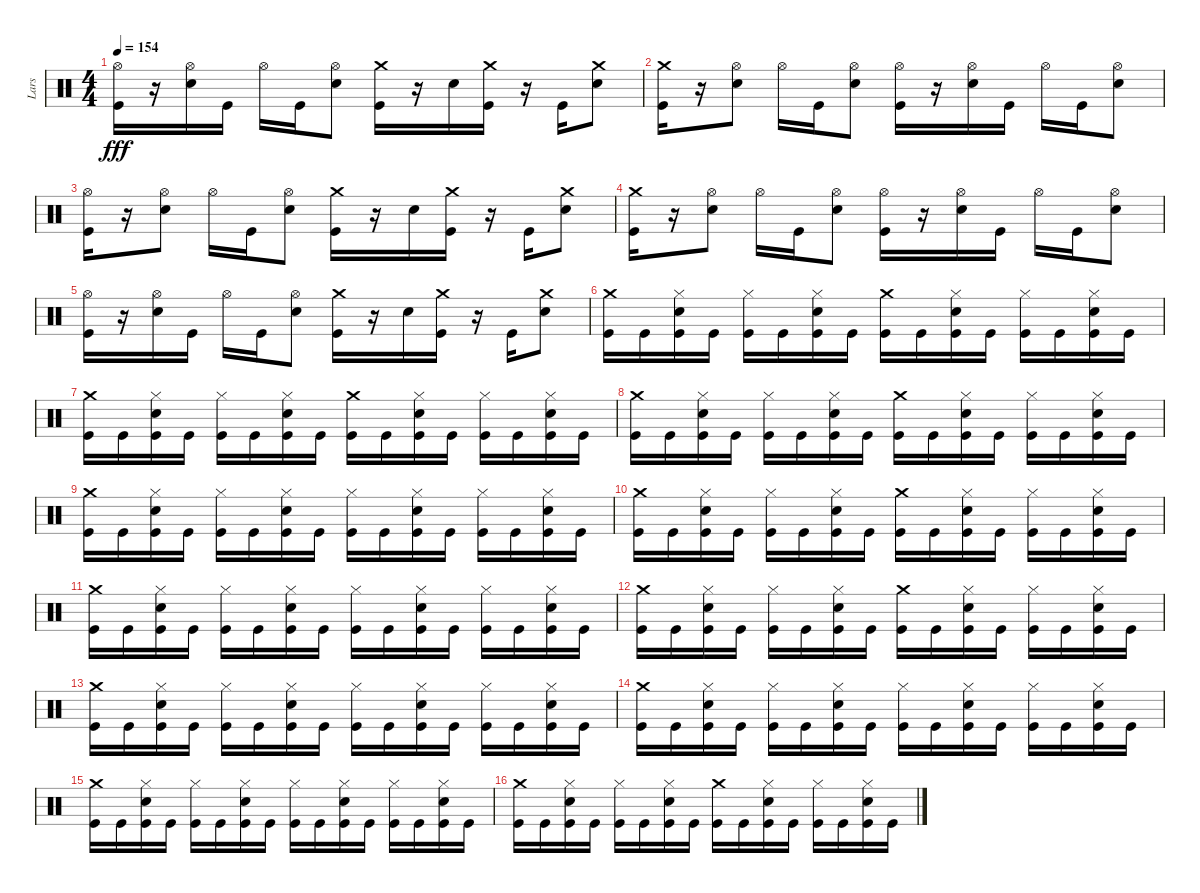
\track ("Lars" "Lars") {instrument percussion bank 102}
\staff {score}
\articulation defaults
\ts (4 4)
\tempo 154
\clef neutral
\ks c
("Hi-Hat (open)" "Kick (hit)").16{dy fff} r.16 ("Snare (hit) 2" "Hi-Hat (open)").16 "Kick (hit)".16 "Hi-Hat (open)".16 "Kick (hit)".16 ("Snare (hit) 2" "Hi-Hat (open)").8 ("Crash medium (hit)" "Kick (hit)").16 r.16 "Snare (hit) 2".16 ("Crash medium (hit)" "Kick (hit)").16 r.16 "Kick (hit)".16 ("Crash medium (hit)" "Snare (hit) 2").8 |
("Kick (hit)" "Crash medium (hit)").16 r.16 ("Snare (hit) 2" "Hi-Hat (open)").8 "Hi-Hat (open)".16 "Kick (hit)".16 ("Snare (hit) 2" "Hi-Hat (open)").8 ("Kick (hit)" "Hi-Hat (open)").16 r.16 ("Snare (hit) 2" "Hi-Hat (open)").16 "Kick (hit)".16 "Hi-Hat (open)".16 "Kick (hit)".16 ("Snare (hit) 2" "Hi-Hat (open)").8 |
("Hi-Hat (open)" "Kick (hit)").16 r.16 ("Snare (hit) 2" "Hi-Hat (open)").8 "Hi-Hat (open)".16 "Kick (hit)".16 ("Snare (hit) 2" "Hi-Hat (open)").8 ("Crash medium (hit)" "Kick (hit)").16 r.16 "Snare (hit) 2".16 ("Crash medium (hit)" "Kick (hit)").16 r.16 "Kick (hit)".16 ("Crash medium (hit)" "Snare (hit) 2").8 |
("Kick (hit)" "Crash medium (hit)").16 r.16 ("Snare (hit) 2" "Hi-Hat (open)").8 "Hi-Hat (open)".16 "Kick (hit)".16 ("Snare (hit) 2" "Hi-Hat (open)").8 ("Kick (hit)" "Hi-Hat (open)").16 r.16 ("Snare (hit) 2" "Hi-Hat (open)").16 "Kick (hit)".16 "Hi-Hat (open)".16 "Kick (hit)".16 ("Snare (hit) 2" "Hi-Hat (open)").8 |
("Hi-Hat (open)" "Kick (hit)").16 r.16 ("Snare (hit) 2" "Hi-Hat (open)").16 "Kick (hit)".16 "Hi-Hat (open)".16 "Kick (hit)".16 ("Snare (hit) 2" "Hi-Hat (open)").8 ("Crash medium (hit)" "Kick (hit)").16 r.16 "Snare (hit) 2".16 ("Crash medium (hit)" "Kick (hit)").16 r.16 "Kick (hit)".16 ("Crash medium (hit)" "Snare (hit) 2").8 |
("Crash medium (hit)" "Kick (hit)").16 "Kick (hit)".16 ("Snare (hit) 2" "Hi-Hat (closed)" "Kick (hit)").16 "Kick (hit)".16 ("Hi-Hat (closed)" "Kick (hit)").16 "Kick (hit)".16 ("Snare (hit) 2" "Hi-Hat (closed)" "Kick (hit)").16 "Kick (hit)".16 ("Crash medium (hit)" "Kick (hit)").16 "Kick (hit)".16 ("Snare (hit) 2" "Hi-Hat (closed)" "Kick (hit)").16 "Kick (hit)".16 ("Hi-Hat (closed)" "Kick (hit)").16 "Kick (hit)".16 ("Snare (hit) 2" "Hi-Hat (closed)" "Kick (hit)").16 "Kick (hit)".16 |
("Crash medium (hit)" "Kick (hit)").16 "Kick (hit)".16 ("Snare (hit) 2" "Hi-Hat (closed)" "Kick (hit)").16 "Kick (hit)".16 ("Hi-Hat (closed)" "Kick (hit)").16 "Kick (hit)".16 ("Snare (hit) 2" "Hi-Hat (closed)" "Kick (hit)").16 "Kick (hit)".16 ("Crash medium (hit)" "Kick (hit)").16 "Kick (hit)".16 ("Snare (hit) 2" "Hi-Hat (closed)" "Kick (hit)").16 "Kick (hit)".16 ("Hi-Hat (closed)" "Kick (hit)").16 "Kick (hit)".16 ("Snare (hit) 2" "Hi-Hat (closed)" "Kick (hit)").16 "Kick (hit)".16 |
("Crash medium (hit)" "Kick (hit)").16 "Kick (hit)".16 ("Snare (hit) 2" "Hi-Hat (closed)" "Kick (hit)").16 "Kick (hit)".16 ("Hi-Hat (closed)" "Kick (hit)").16 "Kick (hit)".16 ("Snare (hit) 2" "Hi-Hat (closed)" "Kick (hit)").16 "Kick (hit)".16 ("Crash medium (hit)" "Kick (hit)").16 "Kick (hit)".16 ("Snare (hit) 2" "Hi-Hat (closed)" "Kick (hit)").16 "Kick (hit)".16 ("Hi-Hat (closed)" "Kick (hit)").16 "Kick (hit)".16 ("Snare (hit) 2" "Hi-Hat (closed)" "Kick (hit)").16 "Kick (hit)".16 |
("Crash medium (hit)" "Kick (hit)").16 "Kick (hit)".16 ("Snare (hit) 2" "Hi-Hat (closed)" "Kick (hit)").16 "Kick (hit)".16 ("Hi-Hat (closed)" "Kick (hit)").16 "Kick (hit)".16 ("Snare (hit) 2" "Hi-Hat (closed)" "Kick (hit)").16 "Kick (hit)".16 ("Hi-Hat (closed)" "Kick (hit)").16 "Kick (hit)".16 ("Snare (hit) 2" "Hi-Hat (closed)" "Kick (hit)").16 "Kick (hit)".16 ("Hi-Hat (closed)" "Kick (hit)").16 "Kick (hit)".16 ("Snare (hit) 2" "Hi-Hat (closed)" "Kick (hit)").16 "Kick (hit)".16 |
("Crash medium (hit)" "Kick (hit)").16 "Kick (hit)".16 ("Snare (hit) 2" "Hi-Hat (closed)" "Kick (hit)").16 "Kick (hit)".16 ("Hi-Hat (closed)" "Kick (hit)").16 "Kick (hit)".16 ("Snare (hit) 2" "Hi-Hat (closed)" "Kick (hit)").16 "Kick (hit)".16 ("Crash medium (hit)" "Kick (hit)").16 "Kick (hit)".16 ("Snare (hit) 2" "Hi-Hat (closed)" "Kick (hit)").16 "Kick (hit)".16 ("Hi-Hat (closed)" "Kick (hit)").16 "Kick (hit)".16 ("Snare (hit) 2" "Hi-Hat (closed)" "Kick (hit)").16 "Kick (hit)".16 |
("Crash medium (hit)" "Kick (hit)").16 "Kick (hit)".16 ("Snare (hit) 2" "Hi-Hat (closed)" "Kick (hit)").16 "Kick (hit)".16 ("Hi-Hat (closed)" "Kick (hit)").16 "Kick (hit)".16 ("Snare (hit) 2" "Hi-Hat (closed)" "Kick (hit)").16 "Kick (hit)".16 ("Hi-Hat (closed)" "Kick (hit)").16 "Kick (hit)".16 ("Snare (hit) 2" "Hi-Hat (closed)" "Kick (hit)").16 "Kick (hit)".16 ("Hi-Hat (closed)" "Kick (hit)").16 "Kick (hit)".16 ("Snare (hit) 2" "Hi-Hat (closed)" "Kick (hit)").16 "Kick (hit)".16 |
("Crash medium (hit)" "Kick (hit)").16 "Kick (hit)".16 ("Snare (hit) 2" "Hi-Hat (closed)" "Kick (hit)").16 "Kick (hit)".16 ("Hi-Hat (closed)" "Kick (hit)").16 "Kick (hit)".16 ("Snare (hit) 2" "Hi-Hat (closed)" "Kick (hit)").16 "Kick (hit)".16 ("Crash medium (hit)" "Kick (hit)").16 "Kick (hit)".16 ("Snare (hit) 2" "Hi-Hat (closed)" "Kick (hit)").16 "Kick (hit)".16 ("Hi-Hat (closed)" "Kick (hit)").16 "Kick (hit)".16 ("Snare (hit) 2" "Hi-Hat (closed)" "Kick (hit)").16 "Kick (hit)".16 |
("Crash medium (hit)" "Kick (hit)").16 "Kick (hit)".16 ("Snare (hit) 2" "Hi-Hat (closed)" "Kick (hit)").16 "Kick (hit)".16 ("Hi-Hat (closed)" "Kick (hit)").16 "Kick (hit)".16 ("Snare (hit) 2" "Hi-Hat (closed)" "Kick (hit)").16 "Kick (hit)".16 ("Hi-Hat (closed)" "Kick (hit)").16 "Kick (hit)".16 ("Snare (hit) 2" "Hi-Hat (closed)" "Kick (hit)").16 "Kick (hit)".16 ("Hi-Hat (closed)" "Kick (hit)").16 "Kick (hit)".16 ("Snare (hit) 2" "Hi-Hat (closed)" "Kick (hit)").16 "Kick (hit)".16 |
("Crash medium (hit)" "Kick (hit)").16 "Kick (hit)".16 ("Snare (hit) 2" "Hi-Hat (closed)" "Kick (hit)").16 "Kick (hit)".16 ("Hi-Hat (closed)" "Kick (hit)").16 "Kick (hit)".16 ("Snare (hit) 2" "Hi-Hat (closed)" "Kick (hit)").16 "Kick (hit)".16 ("Hi-Hat (closed)" "Kick (hit)").16 "Kick (hit)".16 ("Snare (hit) 2" "Hi-Hat (closed)" "Kick (hit)").16 "Kick (hit)".16 ("Hi-Hat (closed)" "Kick (hit)").16 "Kick (hit)".16 ("Snare (hit) 2" "Hi-Hat (closed)" "Kick (hit)").16 "Kick (hit)".16 |
("Crash medium (hit)" "Kick (hit)").16 "Kick (hit)".16 ("Snare (hit) 2" "Hi-Hat (closed)" "Kick (hit)").16 "Kick (hit)".16 ("Hi-Hat (closed)" "Kick (hit)").16 "Kick (hit)".16 ("Snare (hit) 2" "Hi-Hat (closed)" "Kick (hit)").16 "Kick (hit)".16 ("Hi-Hat (closed)" "Kick (hit)").16 "Kick (hit)".16 ("Snare (hit) 2" "Hi-Hat (closed)" "Kick (hit)").16 "Kick (hit)".16 ("Hi-Hat (closed)" "Kick (hit)").16 "Kick (hit)".16 ("Snare (hit) 2" "Hi-Hat (closed)" "Kick (hit)").16 "Kick (hit)".16 |
("Crash medium (hit)" "Kick (hit)").16 "Kick (hit)".16 ("Snare (hit) 2" "Hi-Hat (closed)" "Kick (hit)").16 "Kick (hit)".16 ("Hi-Hat (closed)" "Kick (hit)").16 "Kick (hit)".16 ("Snare (hit) 2" "Hi-Hat (closed)" "Kick (hit)").16 "Kick (hit)".16 ("Crash medium (hit)" "Kick (hit)").16 "Kick (hit)".16 ("Snare (hit) 2" "Hi-Hat (closed)" "Kick (hit)").16 "Kick (hit)".16 ("Hi-Hat (closed)" "Kick (hit)").16 "Kick (hit)".16 ("Snare (hit) 2" "Hi-Hat (closed)" "Kick (hit)").16 "Kick (hit)".16
